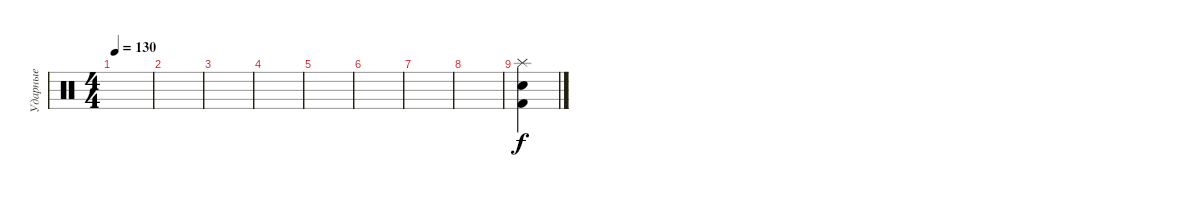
\track ("Ударные" "Ударные") {instrument percussion}
\staff {score}
\articulation defaults
\ts (4 4)
\tempo 130
\clef neutral
\ks c
|
|
|
|
|
|
|
|
("Snare (hit) 2" "Kick (hit) 2" "Splash (hit)").4
